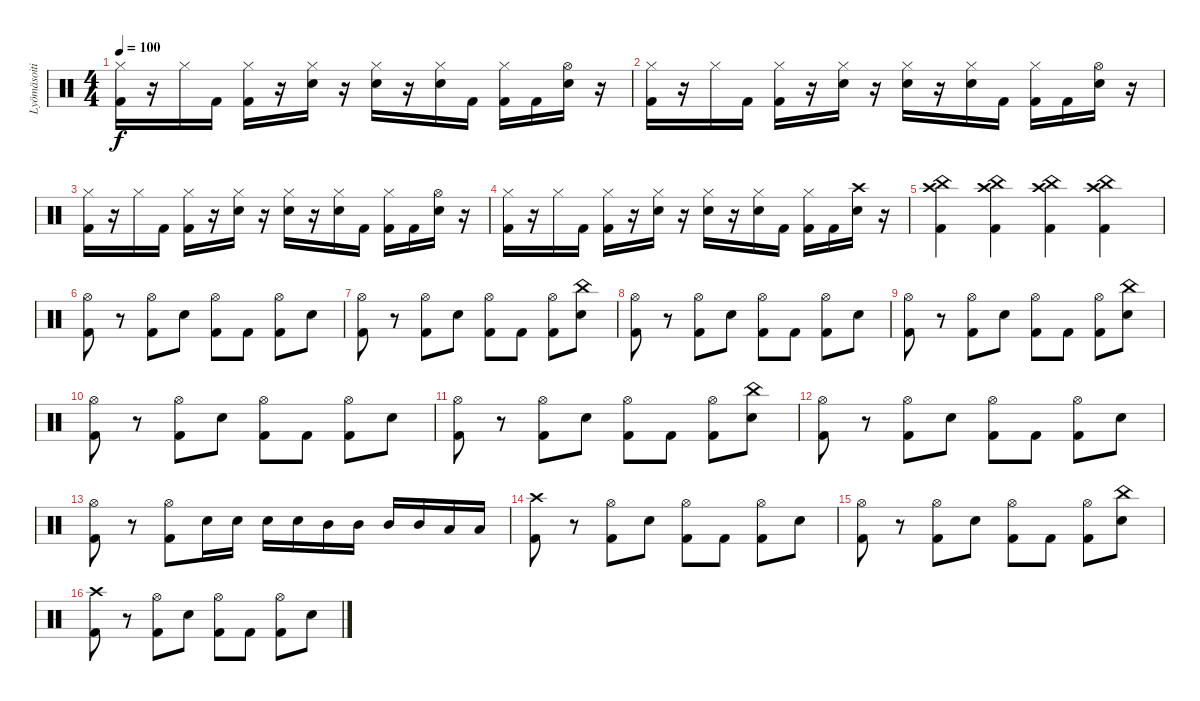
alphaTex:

\track ("Lyömäsoitin" "Lyömäsoiti") {instrument percussion}
\staff {score}
\articulation defaults
\ts (4 4)
\tempo 100
\clef neutral
\ks c
("Hi-Hat (closed)" "Kick (hit) 2").16{dy f} r.16 "Hi-Hat (closed)".16 "Kick (hit) 2".16 ("Hi-Hat (closed)" "Kick (hit) 2").16 r.16 ("Hi-Hat (closed)" "Snare (hit) 2").16 r.16 ("Hi-Hat (closed)" "Snare (hit) 2").16 r.16 ("Hi-Hat (closed)" "Snare (hit) 2").16 "Kick (hit) 2".16 ("Hi-Hat (closed)" "Kick (hit) 2").16 "Kick (hit) 2".16 ("Hi-Hat (open)" "Snare (hit) 2").16 r.16 |
("Hi-Hat (closed)" "Kick (hit) 2").16 r.16 "Hi-Hat (closed)".16 "Kick (hit) 2".16 ("Hi-Hat (closed)" "Kick (hit) 2").16 r.16 ("Hi-Hat (closed)" "Snare (hit) 2").16 r.16 ("Hi-Hat (closed)" "Snare (hit) 2").16 r.16 ("Hi-Hat (closed)" "Snare (hit) 2").16 "Kick (hit) 2".16 ("Hi-Hat (closed)" "Kick (hit) 2").16 "Kick (hit) 2".16 ("Hi-Hat (open)" "Snare (hit) 2").16 r.16 |
("Hi-Hat (closed)" "Kick (hit) 2").16 r.16 "Hi-Hat (closed)".16 "Kick (hit) 2".16 ("Hi-Hat (closed)" "Kick (hit) 2").16 r.16 ("Hi-Hat (closed)" "Snare (hit) 2").16 r.16 ("Hi-Hat (closed)" "Snare (hit) 2").16 r.16 ("Hi-Hat (closed)" "Snare (hit) 2").16 "Kick (hit) 2".16 ("Hi-Hat (closed)" "Kick (hit) 2").16 "Kick (hit) 2".16 ("Hi-Hat (open)" "Snare (hit) 2").16 r.16 |
("Hi-Hat (closed)" "Kick (hit) 2").16 r.16 "Hi-Hat (closed)".16 "Kick (hit) 2".16 ("Hi-Hat (closed)" "Kick (hit) 2").16 r.16 ("Hi-Hat (closed)" "Snare (hit) 2").16 r.16 ("Hi-Hat (closed)" "Snare (hit) 2").16 r.16 ("Hi-Hat (closed)" "Snare (hit) 2").16 "Kick (hit) 2".16 ("Hi-Hat (closed)" "Kick (hit) 2").16 "Kick (hit) 2".16 ("Crash high (hit)" "Snare (hit) 2").16 r.16 |
("Crash high (hit)" "China (hit)" "Kick (hit) 2").4 ("Crash high (hit)" "China (hit)" "Kick (hit) 2").4 ("Crash high (hit)" "China (hit)" "Kick (hit) 2").4 ("Crash high (hit)" "China (hit)" "Kick (hit) 2").4 |
("Hi-Hat (open)" "Kick (hit) 2").8 r.8 ("Hi-Hat (open)" "Kick (hit) 2").8 "Snare (hit) 2".8 ("Hi-Hat (open)" "Kick (hit) 2").8 "Kick (hit) 2".8 ("Hi-Hat (open)" "Kick (hit) 2").8 "Snare (hit) 2".8 |
("Hi-Hat (open)" "Kick (hit) 2").8 r.8 ("Hi-Hat (open)" "Kick (hit) 2").8 "Snare (hit) 2".8 ("Hi-Hat (open)" "Kick (hit) 2").8 "Kick (hit) 2".8 ("Hi-Hat (open)" "Kick (hit) 2").8 ("China (hit)" "Snare (hit) 2").8 |
("Hi-Hat (open)" "Kick (hit) 2").8 r.8 ("Hi-Hat (open)" "Kick (hit) 2").8 "Snare (hit) 2".8 ("Hi-Hat (open)" "Kick (hit) 2").8 "Kick (hit) 2".8 ("Hi-Hat (open)" "Kick (hit) 2").8 "Snare (hit) 2".8 |
("Hi-Hat (open)" "Kick (hit) 2").8 r.8 ("Hi-Hat (open)" "Kick (hit) 2").8 "Snare (hit) 2".8 ("Hi-Hat (open)" "Kick (hit) 2").8 "Kick (hit) 2".8 ("Hi-Hat (open)" "Kick (hit) 2").8 ("China (hit)" "Snare (hit) 2").8 |
("Hi-Hat (open)" "Kick (hit) 2").8 r.8 ("Hi-Hat (open)" "Kick (hit) 2").8 "Snare (hit) 2".8 ("Hi-Hat (open)" "Kick (hit) 2").8 "Kick (hit) 2".8 ("Hi-Hat (open)" "Kick (hit) 2").8 "Snare (hit) 2".8 |
("Hi-Hat (open)" "Kick (hit) 2").8 r.8 ("Hi-Hat (open)" "Kick (hit) 2").8 "Snare (hit) 2".8 ("Hi-Hat (open)" "Kick (hit) 2").8 "Kick (hit) 2".8 ("Hi-Hat (open)" "Kick (hit) 2").8 ("China (hit)" "Snare (hit) 2").8 |
("Hi-Hat (open)" "Kick (hit) 2").8 r.8 ("Hi-Hat (open)" "Kick (hit) 2").8 "Snare (hit) 2".8 ("Hi-Hat (open)" "Kick (hit) 2").8 "Kick (hit) 2".8 ("Hi-Hat (open)" "Kick (hit) 2").8 "Snare (hit) 2".8 |
("Hi-Hat (open)" "Kick (hit) 2").8 r.8 ("Hi-Hat (open)" "Kick (hit) 2").8 "Snare (hit) 2".16 "Snare (hit) 2".16 "Snare (hit) 2".16 "Snare (hit) 2".16 "Mid Tom (hit)".16 "Mid Tom (hit)".16 "Mid Tom (hit)".16 "Mid Tom (hit)".16 "Low Tom (hit)".16 "Low Tom (hit)".16 |
("Crash high (hit)" "Kick (hit) 2").8 r.8 ("Hi-Hat (open)" "Kick (hit) 2").8 "Snare (hit) 2".8 ("Hi-Hat (open)" "Kick (hit) 2").8 "Kick (hit) 2".8 ("Hi-Hat (open)" "Kick (hit) 2").8 "Snare (hit) 2".8 |
("Hi-Hat (open)" "Kick (hit) 2").8 r.8 ("Hi-Hat (open)" "Kick (hit) 2").8 "Snare (hit) 2".8 ("Hi-Hat (open)" "Kick (hit) 2").8 "Kick (hit) 2".8 ("Hi-Hat (open)" "Kick (hit) 2").8 ("China (hit)" "Snare (hit) 2").8 |
("Crash high (hit)" "Kick (hit) 2").8 r.8 ("Hi-Hat (open)" "Kick (hit) 2").8 "Snare (hit) 2".8 ("Hi-Hat (open)" "Kick (hit) 2").8 "Kick (hit) 2".8 ("Hi-Hat (open)" "Kick (hit) 2").8 "Snare (hit) 2".8
